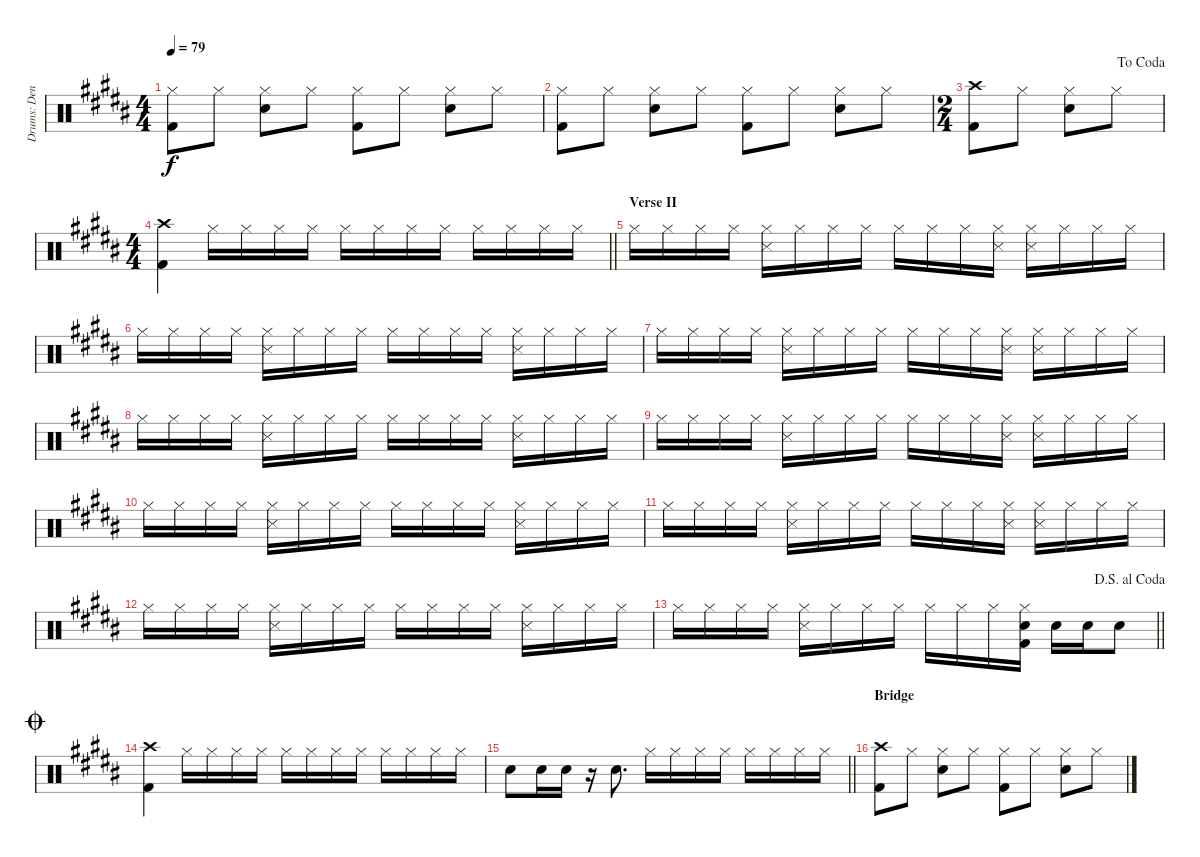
\track ("Drums: Denny" "Drums: Den") {instrument percussion}
\staff {score}
\articulation defaults
\ts (4 4)
\tempo 79
\clef neutral
\ks b
("Hi-Hat (closed)" "Kick (hit) 2").8{dy f} "Hi-Hat (closed)".8 ("Hi-Hat (closed)" "Snare (hit) 2").8 "Hi-Hat (closed)".8 ("Hi-Hat (closed)" "Kick (hit) 2").8 "Hi-Hat (closed)".8 ("Hi-Hat (closed)" "Snare (hit) 2").8 "Hi-Hat (closed)".8 |
("Hi-Hat (closed)" "Kick (hit) 2").8 "Hi-Hat (closed)".8 ("Hi-Hat (closed)" "Snare (hit) 2").8 "Hi-Hat (closed)".8 ("Hi-Hat (closed)" "Kick (hit) 2").8 "Hi-Hat (closed)".8 ("Hi-Hat (closed)" "Snare (hit) 2").8 "Hi-Hat (closed)".8 |
\ts (2 4)
\jump dacoda
("Crash high (hit)" "Kick (hit) 2").8 "Hi-Hat (closed)".8 ("Hi-Hat (closed)" "Snare (hit) 2").8 "Hi-Hat (closed)".8 |
\ts (4 4)
\barLineRight lightlight
("Crash high (hit)" "Kick (hit) 2").4 "Hi-Hat (closed)".16 "Hi-Hat (closed)".16 "Hi-Hat (closed)".16 "Hi-Hat (closed)".16 "Hi-Hat (closed)".16 "Hi-Hat (closed)".16 "Hi-Hat (closed)".16 "Hi-Hat (closed)".16 "Hi-Hat (closed)".16 "Hi-Hat (closed)".16 "Hi-Hat (closed)".16 "Hi-Hat (closed)".16 |
\section ("" "Verse II")
"Hi-Hat (closed)".16 "Hi-Hat (closed)".16 "Hi-Hat (closed)".16 "Hi-Hat (closed)".16 ("Hi-Hat (closed)" "Snare (side stick) 3").16 "Hi-Hat (closed)".16 "Hi-Hat (closed)".16 "Hi-Hat (closed)".16 "Hi-Hat (closed)".16 "Hi-Hat (closed)".16 "Hi-Hat (closed)".16 ("Hi-Hat (closed)" "Snare (side stick) 3").16 ("Hi-Hat (closed)" "Snare (side stick) 3").16 "Hi-Hat (closed)".16 "Hi-Hat (closed)".16 "Hi-Hat (closed)".16 |
"Hi-Hat (closed)".16 "Hi-Hat (closed)".16 "Hi-Hat (closed)".16 "Hi-Hat (closed)".16 ("Hi-Hat (closed)" "Snare (side stick) 3").16 "Hi-Hat (closed)".16 "Hi-Hat (closed)".16 "Hi-Hat (closed)".16 "Hi-Hat (closed)".16 "Hi-Hat (closed)".16 "Hi-Hat (closed)".16 "Hi-Hat (closed)".16 ("Hi-Hat (closed)" "Snare (side stick) 3").16 "Hi-Hat (closed)".16 "Hi-Hat (closed)".16 "Hi-Hat (closed)".16 |
"Hi-Hat (closed)".16 "Hi-Hat (closed)".16 "Hi-Hat (closed)".16 "Hi-Hat (closed)".16 ("Hi-Hat (closed)" "Snare (side stick) 3").16 "Hi-Hat (closed)".16 "Hi-Hat (closed)".16 "Hi-Hat (closed)".16 "Hi-Hat (closed)".16 "Hi-Hat (closed)".16 "Hi-Hat (closed)".16 ("Hi-Hat (closed)" "Snare (side stick) 3").16 ("Hi-Hat (closed)" "Snare (side stick) 3").16 "Hi-Hat (closed)".16 "Hi-Hat (closed)".16 "Hi-Hat (closed)".16 |
"Hi-Hat (closed)".16 "Hi-Hat (closed)".16 "Hi-Hat (closed)".16 "Hi-Hat (closed)".16 ("Hi-Hat (closed)" "Snare (side stick) 3").16 "Hi-Hat (closed)".16 "Hi-Hat (closed)".16 "Hi-Hat (closed)".16 "Hi-Hat (closed)".16 "Hi-Hat (closed)".16 "Hi-Hat (closed)".16 "Hi-Hat (closed)".16 ("Hi-Hat (closed)" "Snare (side stick) 3").16 "Hi-Hat (closed)".16 "Hi-Hat (closed)".16 "Hi-Hat (closed)".16 |
"Hi-Hat (closed)".16 "Hi-Hat (closed)".16 "Hi-Hat (closed)".16 "Hi-Hat (closed)".16 ("Hi-Hat (closed)" "Snare (side stick) 3").16 "Hi-Hat (closed)".16 "Hi-Hat (closed)".16 "Hi-Hat (closed)".16 "Hi-Hat (closed)".16 "Hi-Hat (closed)".16 "Hi-Hat (closed)".16 ("Hi-Hat (closed)" "Snare (side stick) 3").16 ("Hi-Hat (closed)" "Snare (side stick) 3").16 "Hi-Hat (closed)".16 "Hi-Hat (closed)".16 "Hi-Hat (closed)".16 |
"Hi-Hat (closed)".16 "Hi-Hat (closed)".16 "Hi-Hat (closed)".16 "Hi-Hat (closed)".16 ("Hi-Hat (closed)" "Snare (side stick) 3").16 "Hi-Hat (closed)".16 "Hi-Hat (closed)".16 "Hi-Hat (closed)".16 "Hi-Hat (closed)".16 "Hi-Hat (closed)".16 "Hi-Hat (closed)".16 "Hi-Hat (closed)".16 ("Hi-Hat (closed)" "Snare (side stick) 3").16 "Hi-Hat (closed)".16 "Hi-Hat (closed)".16 "Hi-Hat (closed)".16 |
"Hi-Hat (closed)".16 "Hi-Hat (closed)".16 "Hi-Hat (closed)".16 "Hi-Hat (closed)".16 ("Hi-Hat (closed)" "Snare (side stick) 3").16 "Hi-Hat (closed)".16 "Hi-Hat (closed)".16 "Hi-Hat (closed)".16 "Hi-Hat (closed)".16 "Hi-Hat (closed)".16 "Hi-Hat (closed)".16 ("Hi-Hat (closed)" "Snare (side stick) 3").16 ("Hi-Hat (closed)" "Snare (side stick) 3").16 "Hi-Hat (closed)".16 "Hi-Hat (closed)".16 "Hi-Hat (closed)".16 |
"Hi-Hat (closed)".16 "Hi-Hat (closed)".16 "Hi-Hat (closed)".16 "Hi-Hat (closed)".16 ("Hi-Hat (closed)" "Snare (side stick) 3").16 "Hi-Hat (closed)".16 "Hi-Hat (closed)".16 "Hi-Hat (closed)".16 "Hi-Hat (closed)".16 "Hi-Hat (closed)".16 "Hi-Hat (closed)".16 "Hi-Hat (closed)".16 ("Hi-Hat (closed)" "Snare (side stick) 3").16 "Hi-Hat (closed)".16 "Hi-Hat (closed)".16 "Hi-Hat (closed)".16 |
\jump dalsegnoalcoda
\barLineRight lightlight "Hi-Hat (closed)".16 "Hi-Hat (closed)".16 "Hi-Hat (closed)".16 "Hi-Hat (closed)".16
("Hi-Hat (closed)" "Snare (side stick) 3").16 "Hi-Hat (closed)".16 "Hi-Hat (closed)".16 "Hi-Hat (closed)".16 "Hi-Hat (closed)".16 "Hi-Hat (closed)".16 "Hi-Hat (closed)".16 ("Hi-Hat (closed)" "Electric Snare (hit)" "Kick (hit) 2").16 "Electric Snare (hit)".16 "Electric Snare (hit)".16 "Electric Snare (hit)".8 |
\jump coda
("Crash high (hit)" "Kick (hit) 2").4 "Hi-Hat (closed)".16 "Hi-Hat (closed)".16 "Hi-Hat (closed)".16 "Hi-Hat (closed)".16 "Hi-Hat (closed)".16 "Hi-Hat (closed)".16 "Hi-Hat (closed)".16 "Hi-Hat (closed)".16 "Hi-Hat (closed)".16 "Hi-Hat (closed)".16 "Hi-Hat (closed)".16 "Hi-Hat (closed)".16 |
\barLineRight lightlight "Electric Snare (hit)".8 "Electric Snare (hit)".16 "Electric Snare (hit)".16
r.16 "Electric Snare (hit)".8{d} "Hi-Hat (closed)".16 "Hi-Hat (closed)".16 "Hi-Hat (closed)".16 "Hi-Hat (closed)".16 "Hi-Hat (closed)".16 "Hi-Hat (closed)".16 "Hi-Hat (closed)".16 "Hi-Hat (closed)".16 |
\section ("" "Bridge")
("Crash high (hit)" "Kick (hit) 2").8 "Hi-Hat (closed)".8 ("Hi-Hat (closed)" "Snare (hit) 2").8 "Hi-Hat (closed)".8 ("Hi-Hat (closed)" "Kick (hit) 2").8 "Hi-Hat (closed)".8 ("Hi-Hat (closed)" "Snare (hit) 2").8 "Hi-Hat (closed)".8
